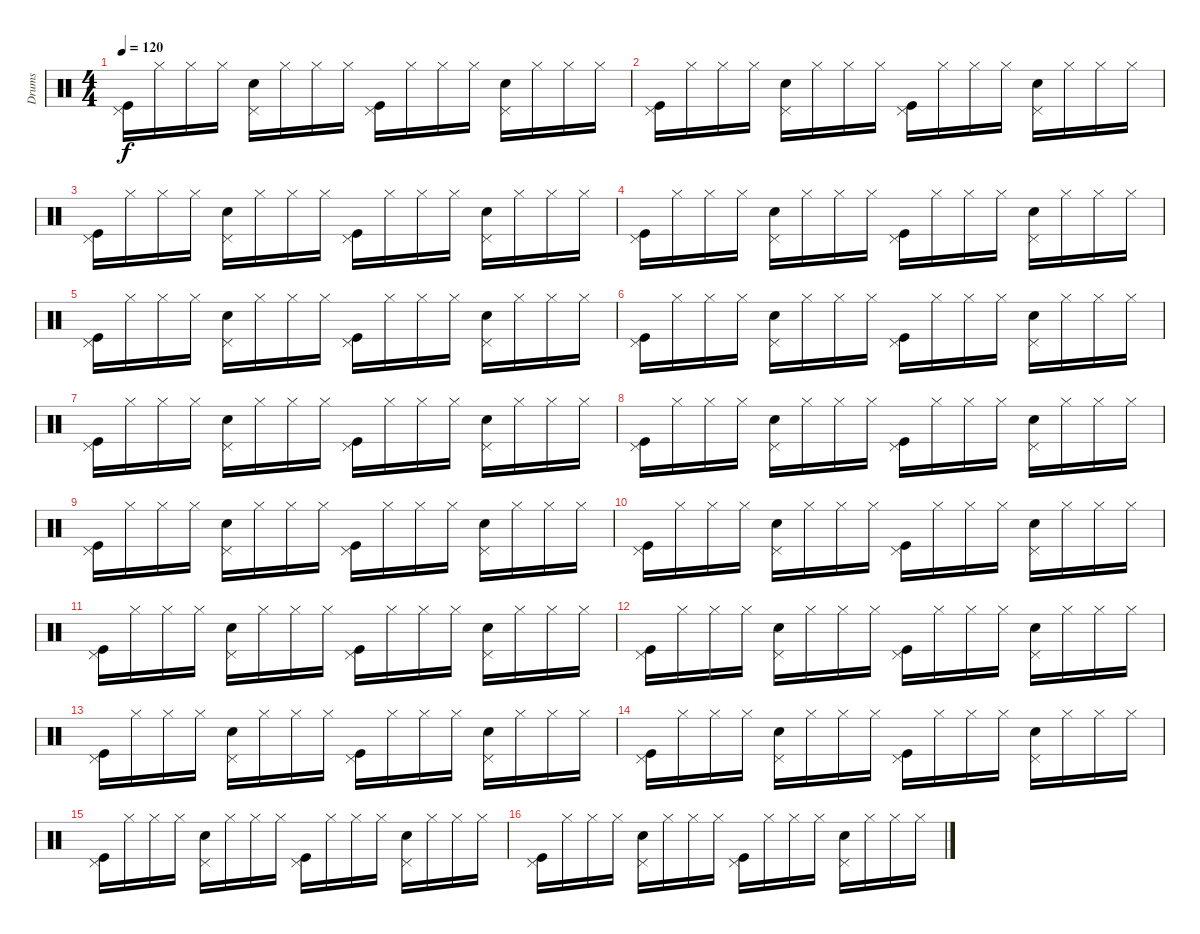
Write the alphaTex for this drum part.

\track ("Drums" "Drums") {instrument percussion}
\staff {score}
\articulation defaults
\ts (4 4)
\tempo 120
\clef neutral
\ks c
("Pedal Hi-Hat (hit)" "Kick (hit)").16{dy f} "Hi-Hat (closed)".16 "Hi-Hat (closed)".16 "Hi-Hat (closed)".16 ("Pedal Hi-Hat (hit)" "Snare (hit) 2").16 "Hi-Hat (closed)".16 "Hi-Hat (closed)".16 "Hi-Hat (closed)".16 ("Pedal Hi-Hat (hit)" "Kick (hit)").16 "Hi-Hat (closed)".16 "Hi-Hat (closed)".16 "Hi-Hat (closed)".16 ("Pedal Hi-Hat (hit)" "Snare (hit) 2").16 "Hi-Hat (closed)".16 "Hi-Hat (closed)".16 "Hi-Hat (closed)".16 |
("Pedal Hi-Hat (hit)" "Kick (hit)").16 "Hi-Hat (closed)".16 "Hi-Hat (closed)".16 "Hi-Hat (closed)".16 ("Pedal Hi-Hat (hit)" "Snare (hit) 2").16 "Hi-Hat (closed)".16 "Hi-Hat (closed)".16 "Hi-Hat (closed)".16 ("Pedal Hi-Hat (hit)" "Kick (hit)").16 "Hi-Hat (closed)".16 "Hi-Hat (closed)".16 "Hi-Hat (closed)".16 ("Pedal Hi-Hat (hit)" "Snare (hit) 2").16 "Hi-Hat (closed)".16 "Hi-Hat (closed)".16 "Hi-Hat (closed)".16 |
("Pedal Hi-Hat (hit)" "Kick (hit)").16 "Hi-Hat (closed)".16 "Hi-Hat (closed)".16 "Hi-Hat (closed)".16 ("Pedal Hi-Hat (hit)" "Snare (hit) 2").16 "Hi-Hat (closed)".16 "Hi-Hat (closed)".16 "Hi-Hat (closed)".16 ("Pedal Hi-Hat (hit)" "Kick (hit)").16 "Hi-Hat (closed)".16 "Hi-Hat (closed)".16 "Hi-Hat (closed)".16 ("Pedal Hi-Hat (hit)" "Snare (hit) 2").16 "Hi-Hat (closed)".16 "Hi-Hat (closed)".16 "Hi-Hat (closed)".16 |
("Pedal Hi-Hat (hit)" "Kick (hit)").16 "Hi-Hat (closed)".16 "Hi-Hat (closed)".16 "Hi-Hat (closed)".16 ("Pedal Hi-Hat (hit)" "Snare (hit) 2").16 "Hi-Hat (closed)".16 "Hi-Hat (closed)".16 "Hi-Hat (closed)".16 ("Pedal Hi-Hat (hit)" "Kick (hit)").16 "Hi-Hat (closed)".16 "Hi-Hat (closed)".16 "Hi-Hat (closed)".16 ("Pedal Hi-Hat (hit)" "Snare (hit) 2").16 "Hi-Hat (closed)".16 "Hi-Hat (closed)".16 "Hi-Hat (closed)".16 |
("Pedal Hi-Hat (hit)" "Kick (hit)").16 "Hi-Hat (closed)".16 "Hi-Hat (closed)".16 "Hi-Hat (closed)".16 ("Pedal Hi-Hat (hit)" "Snare (hit) 2").16 "Hi-Hat (closed)".16 "Hi-Hat (closed)".16 "Hi-Hat (closed)".16 ("Pedal Hi-Hat (hit)" "Kick (hit)").16 "Hi-Hat (closed)".16 "Hi-Hat (closed)".16 "Hi-Hat (closed)".16 ("Pedal Hi-Hat (hit)" "Snare (hit) 2").16 "Hi-Hat (closed)".16 "Hi-Hat (closed)".16 "Hi-Hat (closed)".16 |
("Pedal Hi-Hat (hit)" "Kick (hit)").16 "Hi-Hat (closed)".16 "Hi-Hat (closed)".16 "Hi-Hat (closed)".16 ("Pedal Hi-Hat (hit)" "Snare (hit) 2").16 "Hi-Hat (closed)".16 "Hi-Hat (closed)".16 "Hi-Hat (closed)".16 ("Pedal Hi-Hat (hit)" "Kick (hit)").16 "Hi-Hat (closed)".16 "Hi-Hat (closed)".16 "Hi-Hat (closed)".16 ("Pedal Hi-Hat (hit)" "Snare (hit) 2").16 "Hi-Hat (closed)".16 "Hi-Hat (closed)".16 "Hi-Hat (closed)".16 |
("Pedal Hi-Hat (hit)" "Kick (hit)").16 "Hi-Hat (closed)".16 "Hi-Hat (closed)".16 "Hi-Hat (closed)".16 ("Pedal Hi-Hat (hit)" "Snare (hit) 2").16 "Hi-Hat (closed)".16 "Hi-Hat (closed)".16 "Hi-Hat (closed)".16 ("Pedal Hi-Hat (hit)" "Kick (hit)").16 "Hi-Hat (closed)".16 "Hi-Hat (closed)".16 "Hi-Hat (closed)".16 ("Pedal Hi-Hat (hit)" "Snare (hit) 2").16 "Hi-Hat (closed)".16 "Hi-Hat (closed)".16 "Hi-Hat (closed)".16 |
("Pedal Hi-Hat (hit)" "Kick (hit)").16 "Hi-Hat (closed)".16 "Hi-Hat (closed)".16 "Hi-Hat (closed)".16 ("Pedal Hi-Hat (hit)" "Snare (hit) 2").16 "Hi-Hat (closed)".16 "Hi-Hat (closed)".16 "Hi-Hat (closed)".16 ("Pedal Hi-Hat (hit)" "Kick (hit)").16 "Hi-Hat (closed)".16 "Hi-Hat (closed)".16 "Hi-Hat (closed)".16 ("Pedal Hi-Hat (hit)" "Snare (hit) 2").16 "Hi-Hat (closed)".16 "Hi-Hat (closed)".16 "Hi-Hat (closed)".16 |
("Pedal Hi-Hat (hit)" "Kick (hit)").16 "Hi-Hat (closed)".16 "Hi-Hat (closed)".16 "Hi-Hat (closed)".16 ("Pedal Hi-Hat (hit)" "Snare (hit) 2").16 "Hi-Hat (closed)".16 "Hi-Hat (closed)".16 "Hi-Hat (closed)".16 ("Pedal Hi-Hat (hit)" "Kick (hit)").16 "Hi-Hat (closed)".16 "Hi-Hat (closed)".16 "Hi-Hat (closed)".16 ("Pedal Hi-Hat (hit)" "Snare (hit) 2").16 "Hi-Hat (closed)".16 "Hi-Hat (closed)".16 "Hi-Hat (closed)".16 |
("Pedal Hi-Hat (hit)" "Kick (hit)").16 "Hi-Hat (closed)".16 "Hi-Hat (closed)".16 "Hi-Hat (closed)".16 ("Pedal Hi-Hat (hit)" "Snare (hit) 2").16 "Hi-Hat (closed)".16 "Hi-Hat (closed)".16 "Hi-Hat (closed)".16 ("Pedal Hi-Hat (hit)" "Kick (hit)").16 "Hi-Hat (closed)".16 "Hi-Hat (closed)".16 "Hi-Hat (closed)".16 ("Pedal Hi-Hat (hit)" "Snare (hit) 2").16 "Hi-Hat (closed)".16 "Hi-Hat (closed)".16 "Hi-Hat (closed)".16 |
("Pedal Hi-Hat (hit)" "Kick (hit)").16 "Hi-Hat (closed)".16 "Hi-Hat (closed)".16 "Hi-Hat (closed)".16 ("Pedal Hi-Hat (hit)" "Snare (hit) 2").16 "Hi-Hat (closed)".16 "Hi-Hat (closed)".16 "Hi-Hat (closed)".16 ("Pedal Hi-Hat (hit)" "Kick (hit)").16 "Hi-Hat (closed)".16 "Hi-Hat (closed)".16 "Hi-Hat (closed)".16 ("Pedal Hi-Hat (hit)" "Snare (hit) 2").16 "Hi-Hat (closed)".16 "Hi-Hat (closed)".16 "Hi-Hat (closed)".16 |
("Pedal Hi-Hat (hit)" "Kick (hit)").16 "Hi-Hat (closed)".16 "Hi-Hat (closed)".16 "Hi-Hat (closed)".16 ("Pedal Hi-Hat (hit)" "Snare (hit) 2").16 "Hi-Hat (closed)".16 "Hi-Hat (closed)".16 "Hi-Hat (closed)".16 ("Pedal Hi-Hat (hit)" "Kick (hit)").16 "Hi-Hat (closed)".16 "Hi-Hat (closed)".16 "Hi-Hat (closed)".16 ("Pedal Hi-Hat (hit)" "Snare (hit) 2").16 "Hi-Hat (closed)".16 "Hi-Hat (closed)".16 "Hi-Hat (closed)".16 |
("Pedal Hi-Hat (hit)" "Kick (hit)").16 "Hi-Hat (closed)".16 "Hi-Hat (closed)".16 "Hi-Hat (closed)".16 ("Pedal Hi-Hat (hit)" "Snare (hit) 2").16 "Hi-Hat (closed)".16 "Hi-Hat (closed)".16 "Hi-Hat (closed)".16 ("Pedal Hi-Hat (hit)" "Kick (hit)").16 "Hi-Hat (closed)".16 "Hi-Hat (closed)".16 "Hi-Hat (closed)".16 ("Pedal Hi-Hat (hit)" "Snare (hit) 2").16 "Hi-Hat (closed)".16 "Hi-Hat (closed)".16 "Hi-Hat (closed)".16 |
("Pedal Hi-Hat (hit)" "Kick (hit)").16 "Hi-Hat (closed)".16 "Hi-Hat (closed)".16 "Hi-Hat (closed)".16 ("Pedal Hi-Hat (hit)" "Snare (hit) 2").16 "Hi-Hat (closed)".16 "Hi-Hat (closed)".16 "Hi-Hat (closed)".16 ("Pedal Hi-Hat (hit)" "Kick (hit)").16 "Hi-Hat (closed)".16 "Hi-Hat (closed)".16 "Hi-Hat (closed)".16 ("Pedal Hi-Hat (hit)" "Snare (hit) 2").16 "Hi-Hat (closed)".16 "Hi-Hat (closed)".16 "Hi-Hat (closed)".16 |
("Pedal Hi-Hat (hit)" "Kick (hit)").16 "Hi-Hat (closed)".16 "Hi-Hat (closed)".16 "Hi-Hat (closed)".16 ("Pedal Hi-Hat (hit)" "Snare (hit) 2").16 "Hi-Hat (closed)".16 "Hi-Hat (closed)".16 "Hi-Hat (closed)".16 ("Pedal Hi-Hat (hit)" "Kick (hit)").16 "Hi-Hat (closed)".16 "Hi-Hat (closed)".16 "Hi-Hat (closed)".16 ("Pedal Hi-Hat (hit)" "Snare (hit) 2").16 "Hi-Hat (closed)".16 "Hi-Hat (closed)".16 "Hi-Hat (closed)".16 |
("Pedal Hi-Hat (hit)" "Kick (hit)").16 "Hi-Hat (closed)".16 "Hi-Hat (closed)".16 "Hi-Hat (closed)".16 ("Pedal Hi-Hat (hit)" "Snare (hit) 2").16 "Hi-Hat (closed)".16 "Hi-Hat (closed)".16 "Hi-Hat (closed)".16 ("Pedal Hi-Hat (hit)" "Kick (hit)").16 "Hi-Hat (closed)".16 "Hi-Hat (closed)".16 "Hi-Hat (closed)".16 ("Pedal Hi-Hat (hit)" "Snare (hit) 2").16 "Hi-Hat (closed)".16 "Hi-Hat (closed)".16 "Hi-Hat (closed)".16
